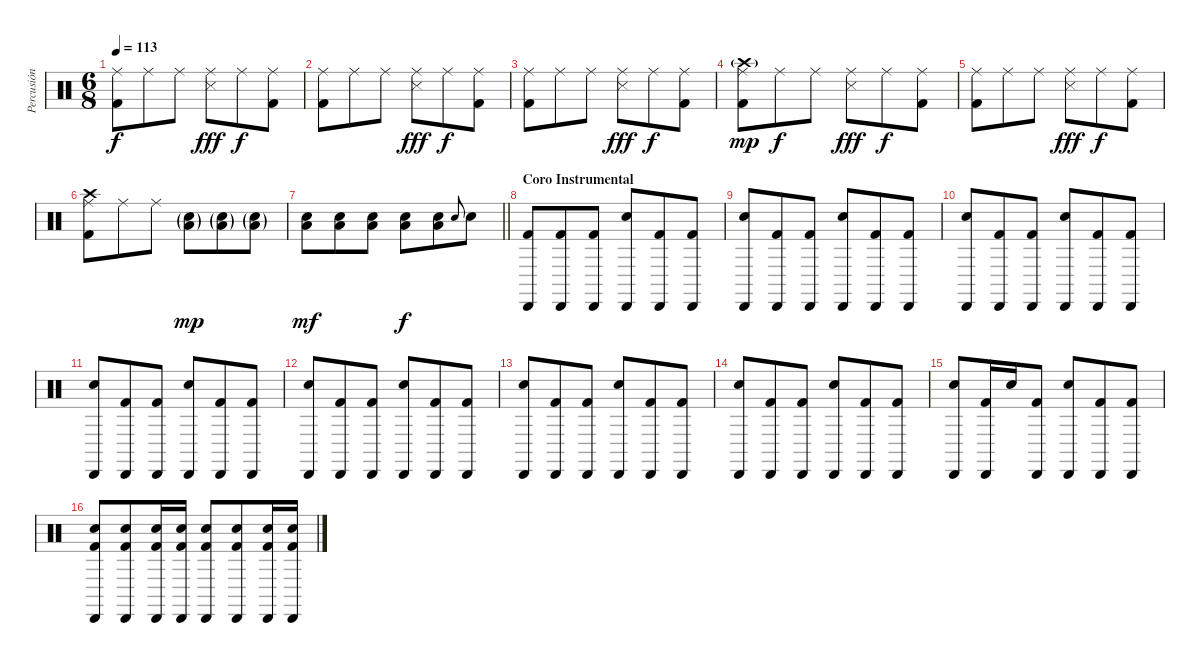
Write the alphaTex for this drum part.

\track ("Percusión" "Percusión") {instrument percussion}
\staff {score}
\articulation defaults
\ts (6 8)
\tempo 113
\clef neutral
\ks c
("Ride (middle)" "Kick (hit) 2").8{dy f} "Ride (middle)".8 "Ride (middle)".8 ("Ride (middle)" "Snare (side stick) 3").8{dy fff} "Ride (middle)".8{dy f} ("Ride (middle)" "Kick (hit) 2").8 |
("Ride (middle)" "Kick (hit) 2").8 "Ride (middle)".8 "Ride (middle)".8 ("Ride (middle)" "Snare (side stick) 3").8{dy fff} "Ride (middle)".8{dy f} ("Ride (middle)" "Kick (hit) 2").8 |
("Ride (middle)" "Kick (hit) 2").8 "Ride (middle)".8 "Ride (middle)".8 ("Ride (middle)" "Snare (side stick) 3").8{dy fff} "Ride (middle)".8{dy f} ("Ride (middle)" "Kick (hit) 2").8 |
("Crash high (hit)"{g} "Ride (middle)" "Kick (hit) 2").8{dy mp} "Ride (middle)".8{dy f} "Ride (middle)".8 ("Ride (middle)" "Snare (side stick) 3").8{dy fff} "Ride (middle)".8{dy f} ("Ride (middle)" "Kick (hit) 2").8 |
("Ride (middle)" "Kick (hit) 2").8 "Ride (middle)".8 "Ride (middle)".8 ("Ride (middle)" "Snare (side stick) 3").8{dy fff} "Ride (middle)".8{dy f} ("Ride (middle)" "Kick (hit) 2").8 |
("Crash high (hit)" "Ride (middle)" "Kick (hit) 2").8 "Ride (middle)".8 "Ride (middle)".8 ("Electric Snare (hit)"{g} "Low Floor Tom (hit)"{g}).8{dy mp} ("Electric Snare (hit)"{g} "Low Floor Tom (hit)"{g}).8 ("Electric Snare (hit)"{g} "Low Floor Tom (hit)"{g}).8 |
\barLineRight lightlight
("Electric Snare (hit)" "Low Floor Tom (hit)").8{dy mf} ("Electric Snare (hit)" "Low Floor Tom (hit)").8 ("Electric Snare (hit)" "Low Floor Tom (hit)").8 ("Electric Snare (hit)" "Low Floor Tom (hit)").8{dy f} ("Electric Snare (hit)" "Low Floor Tom (hit)").8 "Electric Snare (hit)".8{gr onbeat} "Electric Snare (hit)".8 |
\section ("" "Coro Instrumental")
("Cabasa (hit)" "Kick (hit) 2").8 ("Cabasa (hit)" "Kick (hit) 2").8 ("Cabasa (hit)" "Kick (hit) 2").8 ("Cabasa (hit)" "Electric Snare (hit)").8 ("Cabasa (hit)" "Kick (hit) 2").8 ("Cabasa (hit)" "Kick (hit) 2").8 |
("Cabasa (hit)" "Electric Snare (hit)").8 ("Cabasa (hit)" "Kick (hit) 2").8 ("Cabasa (hit)" "Kick (hit) 2").8 ("Cabasa (hit)" "Electric Snare (hit)").8 ("Cabasa (hit)" "Kick (hit) 2").8 ("Cabasa (hit)" "Kick (hit) 2").8 |
("Cabasa (hit)" "Electric Snare (hit)").8 ("Cabasa (hit)" "Kick (hit) 2").8 ("Cabasa (hit)" "Kick (hit) 2").8 ("Cabasa (hit)" "Electric Snare (hit)").8 ("Cabasa (hit)" "Kick (hit) 2").8 ("Cabasa (hit)" "Kick (hit) 2").8 |
("Cabasa (hit)" "Electric Snare (hit)").8 ("Cabasa (hit)" "Kick (hit) 2").8 ("Cabasa (hit)" "Kick (hit) 2").8 ("Cabasa (hit)" "Electric Snare (hit)").8 ("Cabasa (hit)" "Kick (hit) 2").8 ("Cabasa (hit)" "Kick (hit) 2").8 |
("Cabasa (hit)" "Electric Snare (hit)").8 ("Cabasa (hit)" "Kick (hit) 2").8 ("Cabasa (hit)" "Kick (hit) 2").8 ("Cabasa (hit)" "Electric Snare (hit)").8 ("Cabasa (hit)" "Kick (hit) 2").8 ("Cabasa (hit)" "Kick (hit) 2").8 |
("Cabasa (hit)" "Electric Snare (hit)").8 ("Cabasa (hit)" "Kick (hit) 2").8 ("Cabasa (hit)" "Kick (hit) 2").8 ("Cabasa (hit)" "Electric Snare (hit)").8 ("Cabasa (hit)" "Kick (hit) 2").8 ("Cabasa (hit)" "Kick (hit) 2").8 |
("Cabasa (hit)" "Electric Snare (hit)").8 ("Cabasa (hit)" "Kick (hit) 2").8 ("Cabasa (hit)" "Kick (hit) 2").8 ("Cabasa (hit)" "Electric Snare (hit)").8 ("Cabasa (hit)" "Kick (hit) 2").8 ("Cabasa (hit)" "Kick (hit) 2").8 |
("Cabasa (hit)" "Electric Snare (hit)").8 ("Cabasa (hit)" "Kick (hit) 2").16 "Electric Snare (hit)".16 ("Cabasa (hit)" "Kick (hit) 2").8 ("Cabasa (hit)" "Electric Snare (hit)").8 ("Cabasa (hit)" "Kick (hit) 2").8 ("Cabasa (hit)" "Kick (hit) 2").8 |
("Cabasa (hit)" "Electric Snare (hit)" "Kick (hit) 2").8 ("Cabasa (hit)" "Electric Snare (hit)" "Kick (hit) 2").8 ("Cabasa (hit)" "Electric Snare (hit)" "Kick (hit) 2").16 ("Cabasa (hit)" "Electric Snare (hit)" "Kick (hit) 2").16 ("Cabasa (hit)" "Electric Snare (hit)" "Kick (hit) 2").8 ("Cabasa (hit)" "Electric Snare (hit)" "Kick (hit) 2").8 ("Cabasa (hit)" "Electric Snare (hit)" "Kick (hit) 2").16 ("Cabasa (hit)" "Electric Snare (hit)" "Kick (hit) 2").16
